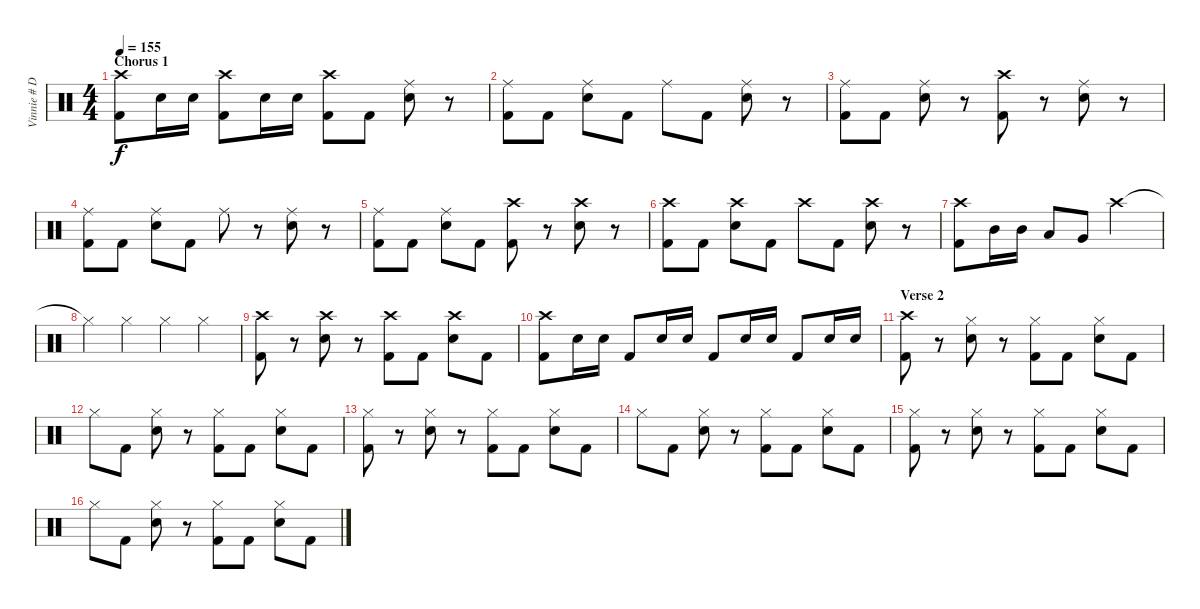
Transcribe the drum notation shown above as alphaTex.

\track ("Vinnie # Drums" "Vinnie # D") {instrument percussion}
\staff {score}
\articulation defaults
\ts (4 4)
\section ("" "Chorus 1")
\tempo 155
\clef neutral
\ks c
("Crash high (hit)" "Kick (hit) 2").8{dy f} "Electric Snare (hit)".16 "Electric Snare (hit)".16 ("Crash high (hit)" "Kick (hit) 2").8 "Electric Snare (hit)".16 "Electric Snare (hit)".16 ("Crash high (hit)" "Kick (hit) 2").8 "Kick (hit) 2".8 ("Ride (middle)" "Electric Snare (hit)").8 r.8 |
("Ride (middle)" "Kick (hit) 2").8 "Kick (hit) 2".8 ("Ride (middle)" "Electric Snare (hit)").8 "Kick (hit) 2".8 "Ride (middle)".8 "Kick (hit) 2".8 ("Ride (middle)" "Electric Snare (hit)").8 r.8 |
("Ride (middle)" "Kick (hit) 2").8 "Kick (hit) 2".8 ("Ride (middle)" "Electric Snare (hit)").8 r.8 ("Crash high (hit)" "Kick (hit) 2").8 r.8 ("Ride (middle)" "Electric Snare (hit)").8 r.8 |
("Ride (middle)" "Kick (hit) 2").8 "Kick (hit) 2".8 ("Ride (middle)" "Electric Snare (hit)").8 "Kick (hit) 2".8 "Ride (middle)".8 r.8 ("Ride (middle)" "Electric Snare (hit)").8 r.8 |
("Ride (middle)" "Kick (hit) 2").8 "Kick (hit) 2".8 ("Ride (middle)" "Electric Snare (hit)").8 "Kick (hit) 2".8 ("Crash high (hit)" "Kick (hit) 2").8 r.8 ("Crash high (hit)" "Electric Snare (hit)").8 r.8 |
("Crash high (hit)" "Kick (hit) 2").8 "Kick (hit) 2".8 ("Crash high (hit)" "Electric Snare (hit)").8 "Kick (hit) 2".8 "Crash high (hit)".8 "Kick (hit) 2".8 ("Crash high (hit)" "Electric Snare (hit)").8 r.8 |
("Crash high (hit)" "Kick (hit) 2").8 "Mid Tom (hit)".16 "Mid Tom (hit)".16 "Low Tom (hit)".8 "Very Low Tom (hit)".8 "Crash high (hit)".2 |
"Hi-Hat (closed)"{t}.4 "Hi-Hat (closed)".4 "Hi-Hat (closed)".4 "Hi-Hat (closed)".4 |
("Crash high (hit)" "Kick (hit) 2").8 r.8 ("Crash high (hit)" "Electric Snare (hit)").8 r.8 ("Crash high (hit)" "Kick (hit) 2").8 "Kick (hit) 2".8 ("Crash high (hit)" "Electric Snare (hit)").8 "Kick (hit) 2".8 |
("Crash high (hit)" "Kick (hit) 2").8 "Electric Snare (hit)".16 "Electric Snare (hit)".16 "Kick (hit) 2".8 "Electric Snare (hit)".16 "Electric Snare (hit)".16 "Kick (hit) 2".8 "Electric Snare (hit)".16 "Electric Snare (hit)".16 "Kick (hit) 2".8 "Electric Snare (hit)".16 "Electric Snare (hit)".16 |
\section ("" "Verse 2")
("Crash high (hit)" "Kick (hit) 2").8 r.8 ("Hi-Hat (closed)" "Electric Snare (hit)").8 r.8 ("Hi-Hat (closed)" "Kick (hit) 2").8 "Kick (hit) 2".8 ("Hi-Hat (closed)" "Electric Snare (hit)").8 "Kick (hit) 2".8 |
"Hi-Hat (closed)".8 "Kick (hit) 2".8 ("Hi-Hat (closed)" "Electric Snare (hit)").8 r.8 ("Hi-Hat (closed)" "Kick (hit) 2").8 "Kick (hit) 2".8 ("Hi-Hat (closed)" "Electric Snare (hit)").8 "Kick (hit) 2".8 |
("Hi-Hat (closed)" "Kick (hit) 2").8 r.8 ("Hi-Hat (closed)" "Electric Snare (hit)").8 r.8 ("Hi-Hat (closed)" "Kick (hit) 2").8 "Kick (hit) 2".8 ("Hi-Hat (closed)" "Electric Snare (hit)").8 "Kick (hit) 2".8 |
"Hi-Hat (closed)".8 "Kick (hit) 2".8 ("Hi-Hat (closed)" "Electric Snare (hit)").8 r.8 ("Hi-Hat (closed)" "Kick (hit) 2").8 "Kick (hit) 2".8 ("Hi-Hat (closed)" "Electric Snare (hit)").8 "Kick (hit) 2".8 |
("Hi-Hat (closed)" "Kick (hit) 2").8 r.8 ("Hi-Hat (closed)" "Electric Snare (hit)").8 r.8 ("Hi-Hat (closed)" "Kick (hit) 2").8 "Kick (hit) 2".8 ("Hi-Hat (closed)" "Electric Snare (hit)").8 "Kick (hit) 2".8 |
"Hi-Hat (closed)".8 "Kick (hit) 2".8 ("Hi-Hat (closed)" "Electric Snare (hit)").8 r.8 ("Hi-Hat (closed)" "Kick (hit) 2").8 "Kick (hit) 2".8 ("Hi-Hat (closed)" "Electric Snare (hit)").8 "Kick (hit) 2".8
